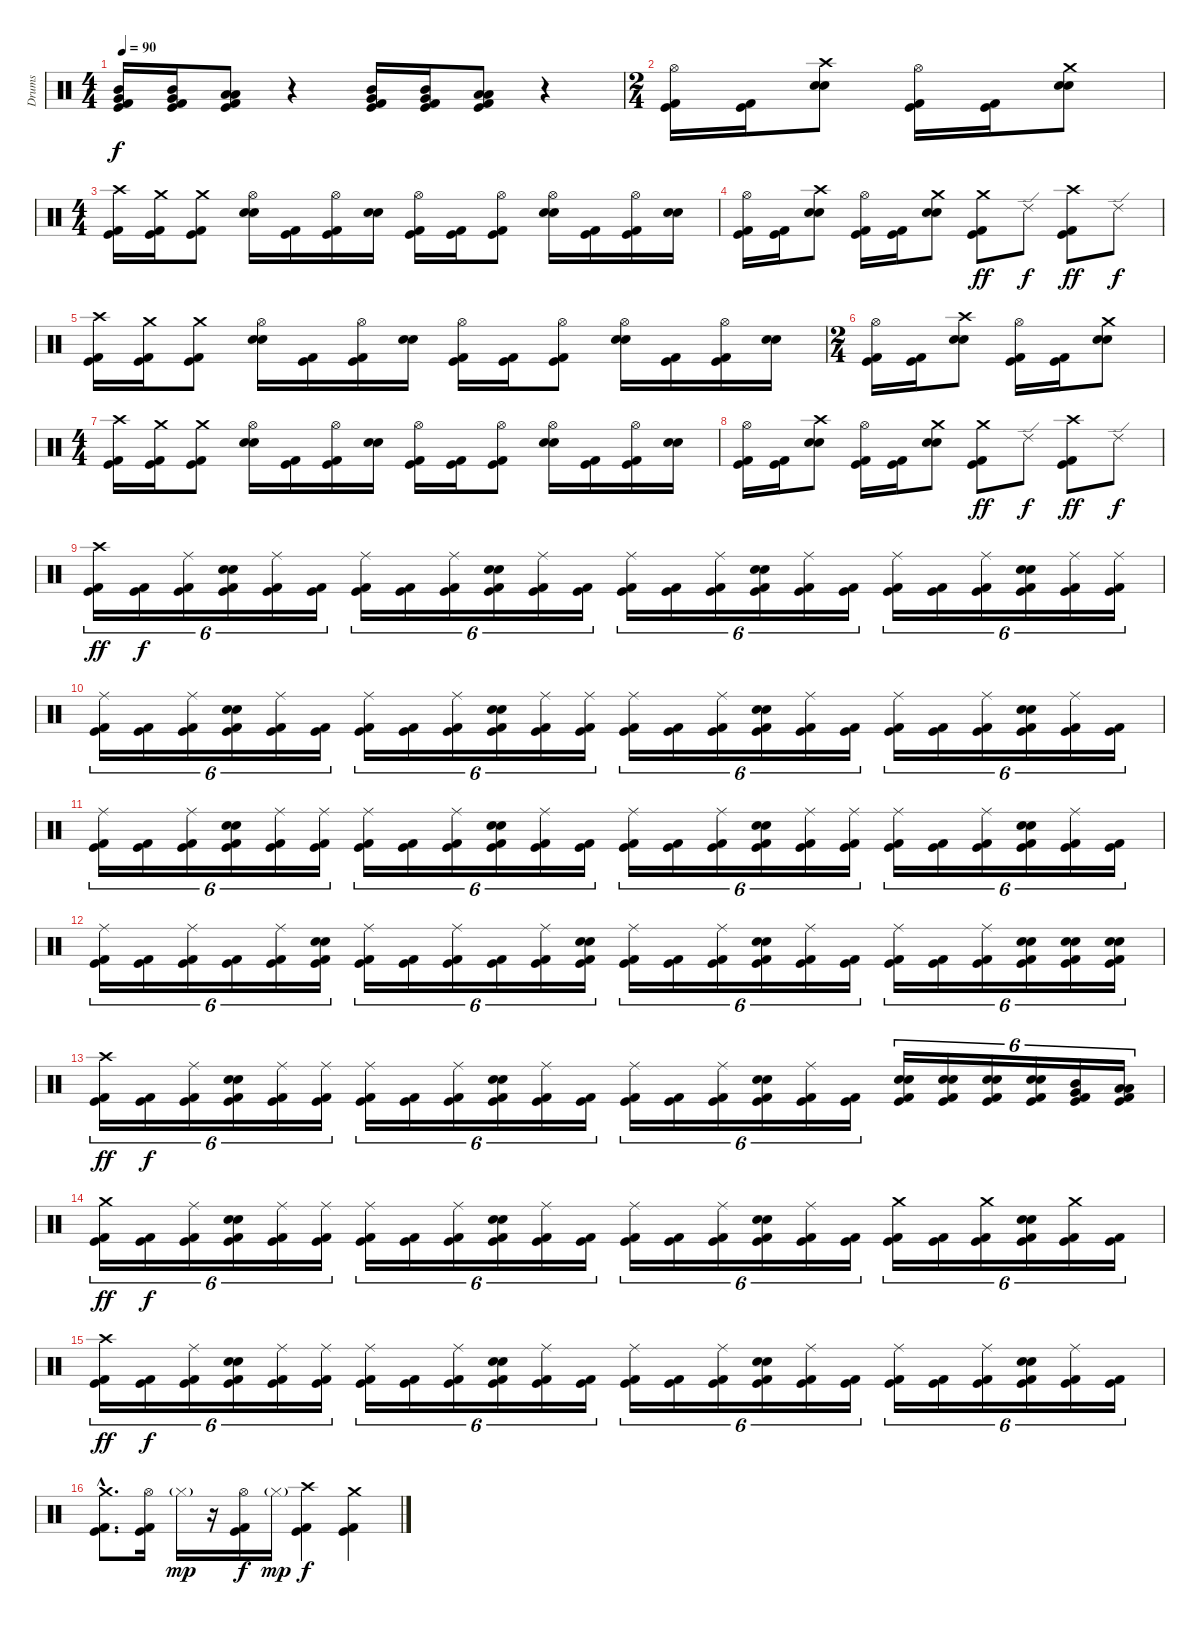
\track ("Drums" "Drums") {instrument percussion}
\staff {score}
\articulation defaults
\ts (4 4)
\tempo 90
\clef neutral
\ks c
("Mid Tom (hit)" "Very Low Tom (hit)" "Kick (hit) 2" "Kick (hit)").16{dy f} ("Mid Tom (hit)" "Very Low Tom (hit)" "Kick (hit) 2" "Kick (hit)").16 ("Low Tom (hit)" "Low Floor Tom (hit)" "Kick (hit) 2" "Kick (hit)").8 r.4 ("Mid Tom (hit)" "Very Low Tom (hit)" "Kick (hit) 2" "Kick (hit)").16 ("Mid Tom (hit)" "Very Low Tom (hit)" "Kick (hit) 2" "Kick (hit)").16 ("Low Tom (hit)" "Low Floor Tom (hit)" "Kick (hit) 2" "Kick (hit)").8 r.4 |
\ts (2 4)
("Hi-Hat (open)" "Kick (hit) 2" "Kick (hit)").16 ("Kick (hit) 2" "Kick (hit)").16 ("Crash high (hit)" "Electric Snare (hit)" "Snare (hit) 2").8 ("Hi-Hat (open)" "Kick (hit) 2" "Kick (hit)").16 ("Kick (hit) 2" "Kick (hit)").16 ("Crash medium (hit)" "Electric Snare (hit)" "Snare (hit) 2").8 |
\ts (4 4)
("Crash high (hit)" "Kick (hit) 2" "Kick (hit)").16 ("Crash medium (hit)" "Kick (hit) 2" "Kick (hit)").16 ("Crash medium (hit)" "Kick (hit) 2" "Kick (hit)").8 ("Hi-Hat (open)" "Electric Snare (hit)" "Snare (hit) 2").16 ("Kick (hit) 2" "Kick (hit)").16 ("Hi-Hat (open)" "Kick (hit) 2" "Kick (hit)").16 ("Electric Snare (hit)" "Snare (hit) 2").16 ("Hi-Hat (open)" "Kick (hit) 2" "Kick (hit)").16 ("Kick (hit) 2" "Kick (hit)").16 ("Hi-Hat (open)" "Kick (hit) 2" "Kick (hit)").8 ("Hi-Hat (open)" "Electric Snare (hit)" "Snare (hit) 2").16 ("Kick (hit) 2" "Kick (hit)").16 ("Hi-Hat (open)" "Kick (hit) 2" "Kick (hit)").16 ("Electric Snare (hit)" "Snare (hit) 2").16 |
("Hi-Hat (open)" "Kick (hit) 2" "Kick (hit)").16 ("Kick (hit) 2" "Kick (hit)").16 ("Crash high (hit)" "Electric Snare (hit)" "Snare (hit) 2").8 ("Hi-Hat (open)" "Kick (hit) 2" "Kick (hit)").16 ("Kick (hit) 2" "Kick (hit)").16 ("Crash medium (hit)" "Electric Snare (hit)" "Snare (hit) 2").8 ("Crash medium (hit)" "Kick (hit) 2" "Kick (hit)").8{dy ff} "Ride (edge) 2".8{dy f} ("Crash high (hit)" "Kick (hit) 2" "Kick (hit)").8{dy ff} "Ride (edge) 2".8{dy f} |
("Crash high (hit)" "Kick (hit) 2" "Kick (hit)").16 ("Crash medium (hit)" "Kick (hit) 2" "Kick (hit)").16 ("Crash medium (hit)" "Kick (hit) 2" "Kick (hit)").8 ("Hi-Hat (open)" "Electric Snare (hit)" "Snare (hit) 2").16 ("Kick (hit) 2" "Kick (hit)").16 ("Hi-Hat (open)" "Kick (hit) 2" "Kick (hit)").16 ("Electric Snare (hit)" "Snare (hit) 2").16 ("Hi-Hat (open)" "Kick (hit) 2" "Kick (hit)").16 ("Kick (hit) 2" "Kick (hit)").16 ("Hi-Hat (open)" "Kick (hit) 2" "Kick (hit)").8 ("Hi-Hat (open)" "Electric Snare (hit)" "Snare (hit) 2").16 ("Kick (hit) 2" "Kick (hit)").16 ("Hi-Hat (open)" "Kick (hit) 2" "Kick (hit)").16 ("Electric Snare (hit)" "Snare (hit) 2").16 |
\ts (2 4)
("Hi-Hat (open)" "Kick (hit) 2" "Kick (hit)").16 ("Kick (hit) 2" "Kick (hit)").16 ("Crash high (hit)" "Electric Snare (hit)" "Snare (hit) 2").8 ("Hi-Hat (open)" "Kick (hit) 2" "Kick (hit)").16 ("Kick (hit) 2" "Kick (hit)").16 ("Crash medium (hit)" "Electric Snare (hit)" "Snare (hit) 2").8 |
\ts (4 4)
("Crash high (hit)" "Kick (hit) 2" "Kick (hit)").16 ("Crash medium (hit)" "Kick (hit) 2" "Kick (hit)").16 ("Crash medium (hit)" "Kick (hit) 2" "Kick (hit)").8 ("Hi-Hat (open)" "Electric Snare (hit)" "Snare (hit) 2").16 ("Kick (hit) 2" "Kick (hit)").16 ("Hi-Hat (open)" "Kick (hit) 2" "Kick (hit)").16 ("Electric Snare (hit)" "Snare (hit) 2").16 ("Hi-Hat (open)" "Kick (hit) 2" "Kick (hit)").16 ("Kick (hit) 2" "Kick (hit)").16 ("Hi-Hat (open)" "Kick (hit) 2" "Kick (hit)").8 ("Hi-Hat (open)" "Electric Snare (hit)" "Snare (hit) 2").16 ("Kick (hit) 2" "Kick (hit)").16 ("Hi-Hat (open)" "Kick (hit) 2" "Kick (hit)").16 ("Electric Snare (hit)" "Snare (hit) 2").16 |
("Hi-Hat (open)" "Kick (hit) 2" "Kick (hit)").16 ("Kick (hit) 2" "Kick (hit)").16 ("Crash high (hit)" "Electric Snare (hit)" "Snare (hit) 2").8 ("Hi-Hat (open)" "Kick (hit) 2" "Kick (hit)").16 ("Kick (hit) 2" "Kick (hit)").16 ("Crash medium (hit)" "Electric Snare (hit)" "Snare (hit) 2").8 ("Crash medium (hit)" "Kick (hit) 2" "Kick (hit)").8{dy ff} "Ride (edge) 2".8{dy f} ("Crash high (hit)" "Kick (hit) 2" "Kick (hit)").8{dy ff} "Ride (edge) 2".8{dy f} |
("Crash high (hit)" "Kick (hit) 2" "Kick (hit)").16{tu (6 4) dy ff} ("Kick (hit) 2" "Kick (hit)").16{tu (6 4) dy f} ("Ride (middle)" "Kick (hit) 2" "Kick (hit)").16{tu (6 4)} ("Electric Snare (hit)" "Snare (hit) 2" "Kick (hit) 2" "Kick (hit)").16{tu (6 4)} ("Ride (middle)" "Kick (hit) 2" "Kick (hit)").16{tu (6 4)} ("Kick (hit) 2" "Kick (hit)").16{tu (6 4)} ("Ride (middle)" "Kick (hit) 2" "Kick (hit)").16{tu (6 4)} ("Kick (hit) 2" "Kick (hit)").16{tu (6 4)} ("Ride (middle)" "Kick (hit) 2" "Kick (hit)").16{tu (6 4)} ("Electric Snare (hit)" "Snare (hit) 2" "Kick (hit) 2" "Kick (hit)").16{tu (6 4)} ("Ride (middle)" "Kick (hit) 2" "Kick (hit)").16{tu (6 4)} ("Kick (hit) 2" "Kick (hit)").16{tu (6 4)} ("Ride (middle)" "Kick (hit) 2" "Kick (hit)").16{tu (6 4)} ("Kick (hit) 2" "Kick (hit)").16{tu (6 4)} ("Ride (middle)" "Kick (hit) 2" "Kick (hit)").16{tu (6 4)} ("Electric Snare (hit)" "Snare (hit) 2" "Kick (hit) 2" "Kick (hit)").16{tu (6 4)} ("Ride (middle)" "Kick (hit) 2" "Kick (hit)").16{tu (6 4)} ("Kick (hit) 2" "Kick (hit)").16{tu (6 4)} ("Ride (middle)" "Kick (hit) 2" "Kick (hit)").16{tu (6 4)} ("Kick (hit) 2" "Kick (hit)").16{tu (6 4)} ("Ride (middle)" "Kick (hit) 2" "Kick (hit)").16{tu (6 4)} ("Electric Snare (hit)" "Snare (hit) 2" "Kick (hit) 2" "Kick (hit)").16{tu (6 4)} ("Ride (middle)" "Kick (hit) 2" "Kick (hit)").16{tu (6 4)} ("Ride (middle)" "Kick (hit) 2" "Kick (hit)").16{tu (6 4)} |
("Ride (middle)" "Kick (hit) 2" "Kick (hit)").16{tu (6 4)} ("Kick (hit) 2" "Kick (hit)").16{tu (6 4)} ("Ride (middle)" "Kick (hit) 2" "Kick (hit)").16{tu (6 4)} ("Electric Snare (hit)" "Snare (hit) 2" "Kick (hit) 2" "Kick (hit)").16{tu (6 4)} ("Ride (middle)" "Kick (hit) 2" "Kick (hit)").16{tu (6 4)} ("Kick (hit) 2" "Kick (hit)").16{tu (6 4)} ("Ride (middle)" "Kick (hit) 2" "Kick (hit)").16{tu (6 4)} ("Kick (hit) 2" "Kick (hit)").16{tu (6 4)} ("Ride (middle)" "Kick (hit) 2" "Kick (hit)").16{tu (6 4)} ("Electric Snare (hit)" "Snare (hit) 2" "Kick (hit) 2" "Kick (hit)").16{tu (6 4)} ("Ride (middle)" "Kick (hit) 2" "Kick (hit)").16{tu (6 4)} ("Ride (middle)" "Kick (hit) 2" "Kick (hit)").16{tu (6 4)} ("Ride (middle)" "Kick (hit) 2" "Kick (hit)").16{tu (6 4)} ("Kick (hit) 2" "Kick (hit)").16{tu (6 4)} ("Ride (middle)" "Kick (hit) 2" "Kick (hit)").16{tu (6 4)} ("Electric Snare (hit)" "Snare (hit) 2" "Kick (hit) 2" "Kick (hit)").16{tu (6 4)} ("Ride (middle)" "Kick (hit) 2" "Kick (hit)").16{tu (6 4)} ("Kick (hit) 2" "Kick (hit)").16{tu (6 4)} ("Ride (middle)" "Kick (hit) 2" "Kick (hit)").16{tu (6 4)} ("Kick (hit) 2" "Kick (hit)").16{tu (6 4)} ("Ride (middle)" "Kick (hit) 2" "Kick (hit)").16{tu (6 4)} ("Electric Snare (hit)" "Snare (hit) 2" "Kick (hit) 2" "Kick (hit)").16{tu (6 4)} ("Ride (middle)" "Kick (hit) 2" "Kick (hit)").16{tu (6 4)} ("Kick (hit) 2" "Kick (hit)").16{tu (6 4)} |
("Ride (middle)" "Kick (hit) 2" "Kick (hit)").16{tu (6 4)} ("Kick (hit) 2" "Kick (hit)").16{tu (6 4)} ("Ride (middle)" "Kick (hit) 2" "Kick (hit)").16{tu (6 4)} ("Electric Snare (hit)" "Snare (hit) 2" "Kick (hit) 2" "Kick (hit)").16{tu (6 4)} ("Ride (middle)" "Kick (hit) 2" "Kick (hit)").16{tu (6 4)} ("Ride (middle)" "Kick (hit) 2" "Kick (hit)").16{tu (6 4)} ("Ride (middle)" "Kick (hit) 2" "Kick (hit)").16{tu (6 4)} ("Kick (hit) 2" "Kick (hit)").16{tu (6 4)} ("Ride (middle)" "Kick (hit) 2" "Kick (hit)").16{tu (6 4)} ("Electric Snare (hit)" "Snare (hit) 2" "Kick (hit) 2" "Kick (hit)").16{tu (6 4)} ("Ride (middle)" "Kick (hit) 2" "Kick (hit)").16{tu (6 4)} ("Kick (hit) 2" "Kick (hit)").16{tu (6 4)} ("Ride (middle)" "Kick (hit) 2" "Kick (hit)").16{tu (6 4)} ("Kick (hit) 2" "Kick (hit)").16{tu (6 4)} ("Ride (middle)" "Kick (hit) 2" "Kick (hit)").16{tu (6 4)} ("Electric Snare (hit)" "Snare (hit) 2" "Kick (hit) 2" "Kick (hit)").16{tu (6 4)} ("Ride (middle)" "Kick (hit) 2" "Kick (hit)").16{tu (6 4)} ("Ride (middle)" "Kick (hit) 2" "Kick (hit)").16{tu (6 4)} ("Ride (middle)" "Kick (hit) 2" "Kick (hit)").16{tu (6 4)} ("Kick (hit) 2" "Kick (hit)").16{tu (6 4)} ("Ride (middle)" "Kick (hit) 2" "Kick (hit)").16{tu (6 4)} ("Electric Snare (hit)" "Snare (hit) 2" "Kick (hit) 2" "Kick (hit)").16{tu (6 4)} ("Ride (middle)" "Kick (hit) 2" "Kick (hit)").16{tu (6 4)} ("Kick (hit) 2" "Kick (hit)").16{tu (6 4)} |
("Ride (middle)" "Kick (hit) 2" "Kick (hit)").16{tu (6 4)} ("Kick (hit) 2" "Kick (hit)").16{tu (6 4)} ("Ride (middle)" "Kick (hit) 2" "Kick (hit)").16{tu (6 4)} ("Kick (hit) 2" "Kick (hit)").16{tu (6 4)} ("Ride (middle)" "Kick (hit) 2" "Kick (hit)").16{tu (6 4)} ("Electric Snare (hit)" "Snare (hit) 2" "Kick (hit) 2" "Kick (hit)").16{tu (6 4)} ("Ride (middle)" "Kick (hit) 2" "Kick (hit)").16{tu (6 4)} ("Kick (hit) 2" "Kick (hit)").16{tu (6 4)} ("Ride (middle)" "Kick (hit) 2" "Kick (hit)").16{tu (6 4)} ("Kick (hit) 2" "Kick (hit)").16{tu (6 4)} ("Ride (middle)" "Kick (hit) 2" "Kick (hit)").16{tu (6 4)} ("Electric Snare (hit)" "Snare (hit) 2" "Kick (hit) 2" "Kick (hit)").16{tu (6 4)} ("Ride (middle)" "Kick (hit) 2" "Kick (hit)").16{tu (6 4)} ("Kick (hit) 2" "Kick (hit)").16{tu (6 4)} ("Ride (middle)" "Kick (hit) 2" "Kick (hit)").16{tu (6 4)} ("Electric Snare (hit)" "Snare (hit) 2" "Kick (hit) 2" "Kick (hit)").16{tu (6 4)} ("Ride (middle)" "Kick (hit) 2" "Kick (hit)").16{tu (6 4)} ("Kick (hit) 2" "Kick (hit)").16{tu (6 4)} ("Ride (middle)" "Kick (hit) 2" "Kick (hit)").16{tu (6 4)} ("Kick (hit) 2" "Kick (hit)").16{tu (6 4)} ("Ride (middle)" "Kick (hit) 2" "Kick (hit)").16{tu (6 4)} ("Electric Snare (hit)" "Snare (hit) 2" "Kick (hit) 2" "Kick (hit)").16{tu (6 4)} ("Electric Snare (hit)" "Snare (hit) 2" "Kick (hit) 2" "Kick (hit)").16{tu (6 4)} ("Electric Snare (hit)" "Snare (hit) 2" "Kick (hit) 2" "Kick (hit)").16{tu (6 4)} |
("Crash high (hit)" "Kick (hit) 2" "Kick (hit)").16{tu (6 4) dy ff} ("Kick (hit) 2" "Kick (hit)").16{tu (6 4) dy f} ("Ride (middle)" "Kick (hit) 2" "Kick (hit)").16{tu (6 4)} ("Electric Snare (hit)" "Snare (hit) 2" "Kick (hit) 2" "Kick (hit)").16{tu (6 4)} ("Ride (middle)" "Kick (hit) 2" "Kick (hit)").16{tu (6 4)} ("Ride (middle)" "Kick (hit) 2" "Kick (hit)").16{tu (6 4)} ("Ride (middle)" "Kick (hit) 2" "Kick (hit)").16{tu (6 4)} ("Kick (hit) 2" "Kick (hit)").16{tu (6 4)} ("Ride (middle)" "Kick (hit) 2" "Kick (hit)").16{tu (6 4)} ("Electric Snare (hit)" "Snare (hit) 2" "Kick (hit) 2" "Kick (hit)").16{tu (6 4)} ("Ride (middle)" "Kick (hit) 2" "Kick (hit)").16{tu (6 4)} ("Kick (hit) 2" "Kick (hit)").16{tu (6 4)} ("Ride (middle)" "Kick (hit) 2" "Kick (hit)").16{tu (6 4)} ("Kick (hit) 2" "Kick (hit)").16{tu (6 4)} ("Ride (middle)" "Kick (hit) 2" "Kick (hit)").16{tu (6 4)} ("Electric Snare (hit)" "Snare (hit) 2" "Kick (hit) 2" "Kick (hit)").16{tu (6 4)} ("Ride (middle)" "Kick (hit) 2" "Kick (hit)").16{tu (6 4)} ("Kick (hit) 2" "Kick (hit)").16{tu (6 4)} ("Electric Snare (hit)" "Snare (hit) 2" "Kick (hit) 2" "Kick (hit)").16{tu (6 4)} ("Electric Snare (hit)" "Snare (hit) 2" "Kick (hit) 2" "Kick (hit)").16{tu (6 4)} ("Electric Snare (hit)" "Snare (hit) 2" "Kick (hit) 2" "Kick (hit)").16{tu (6 4)} ("Electric Snare (hit)" "Snare (hit) 2" "Kick (hit) 2" "Kick (hit)").16{tu (6 4)} ("Mid Tom (hit)" "Very Low Tom (hit)" "Kick (hit) 2" "Kick (hit)").16{tu (6 4)} ("Low Tom (hit)" "Low Floor Tom (hit)" "Kick (hit) 2" "Kick (hit)").16{tu (6 4)} |
("Crash medium (hit)" "Kick (hit) 2" "Kick (hit)").16{tu (6 4) dy ff} ("Kick (hit) 2" "Kick (hit)").16{tu (6 4) dy f} ("Ride (middle)" "Kick (hit) 2" "Kick (hit)").16{tu (6 4)} ("Electric Snare (hit)" "Snare (hit) 2" "Kick (hit) 2" "Kick (hit)").16{tu (6 4)} ("Ride (middle)" "Kick (hit) 2" "Kick (hit)").16{tu (6 4)} ("Ride (middle)" "Kick (hit) 2" "Kick (hit)").16{tu (6 4)} ("Ride (middle)" "Kick (hit) 2" "Kick (hit)").16{tu (6 4)} ("Kick (hit) 2" "Kick (hit)").16{tu (6 4)} ("Ride (middle)" "Kick (hit) 2" "Kick (hit)").16{tu (6 4)} ("Electric Snare (hit)" "Snare (hit) 2" "Kick (hit) 2" "Kick (hit)").16{tu (6 4)} ("Ride (middle)" "Kick (hit) 2" "Kick (hit)").16{tu (6 4)} ("Kick (hit) 2" "Kick (hit)").16{tu (6 4)} ("Ride (middle)" "Kick (hit) 2" "Kick (hit)").16{tu (6 4)} ("Kick (hit) 2" "Kick (hit)").16{tu (6 4)} ("Ride (middle)" "Kick (hit) 2" "Kick (hit)").16{tu (6 4)} ("Electric Snare (hit)" "Snare (hit) 2" "Kick (hit) 2" "Kick (hit)").16{tu (6 4)} ("Ride (middle)" "Kick (hit) 2" "Kick (hit)").16{tu (6 4)} ("Kick (hit) 2" "Kick (hit)").16{tu (6 4)} ("Crash medium (hit)" "Kick (hit) 2" "Kick (hit)").16{tu (6 4)} ("Kick (hit) 2" "Kick (hit)").16{tu (6 4)} ("Crash medium (hit)" "Kick (hit) 2" "Kick (hit)").16{tu (6 4)} ("Electric Snare (hit)" "Snare (hit) 2" "Kick (hit) 2" "Kick (hit)").16{tu (6 4)} ("Crash medium (hit)" "Kick (hit) 2" "Kick (hit)").16{tu (6 4)} ("Kick (hit) 2" "Kick (hit)").16{tu (6 4)} |
("Crash high (hit)" "Kick (hit) 2" "Kick (hit)").16{tu (6 4) dy ff} ("Kick (hit) 2" "Kick (hit)").16{tu (6 4) dy f} ("Ride (middle)" "Kick (hit) 2" "Kick (hit)").16{tu (6 4)} ("Electric Snare (hit)" "Snare (hit) 2" "Kick (hit) 2" "Kick (hit)").16{tu (6 4)} ("Ride (middle)" "Kick (hit) 2" "Kick (hit)").16{tu (6 4)} ("Ride (middle)" "Kick (hit) 2" "Kick (hit)").16{tu (6 4)} ("Ride (middle)" "Kick (hit) 2" "Kick (hit)").16{tu (6 4)} ("Kick (hit) 2" "Kick (hit)").16{tu (6 4)} ("Ride (middle)" "Kick (hit) 2" "Kick (hit)").16{tu (6 4)} ("Electric Snare (hit)" "Snare (hit) 2" "Kick (hit) 2" "Kick (hit)").16{tu (6 4)} ("Ride (middle)" "Kick (hit) 2" "Kick (hit)").16{tu (6 4)} ("Kick (hit) 2" "Kick (hit)").16{tu (6 4)} ("Ride (middle)" "Kick (hit) 2" "Kick (hit)").16{tu (6 4)} ("Kick (hit) 2" "Kick (hit)").16{tu (6 4)} ("Ride (middle)" "Kick (hit) 2" "Kick (hit)").16{tu (6 4)} ("Electric Snare (hit)" "Snare (hit) 2" "Kick (hit) 2" "Kick (hit)").16{tu (6 4)} ("Ride (middle)" "Kick (hit) 2" "Kick (hit)").16{tu (6 4)} ("Kick (hit) 2" "Kick (hit)").16{tu (6 4)} ("Ride (middle)" "Kick (hit) 2" "Kick (hit)").16{tu (6 4)} ("Kick (hit) 2" "Kick (hit)").16{tu (6 4)} ("Ride (middle)" "Kick (hit) 2" "Kick (hit)").16{tu (6 4)} ("Electric Snare (hit)" "Snare (hit) 2" "Kick (hit) 2" "Kick (hit)").16{tu (6 4)} ("Ride (middle)" "Kick (hit) 2" "Kick (hit)").16{tu (6 4)} ("Kick (hit) 2" "Kick (hit)").16{tu (6 4)} |
("Crash medium (hit)"{hac} "Kick (hit) 2"{hac} "Kick (hit)"{hac}).8{d} ("Hi-Hat (open)" "Kick (hit) 2" "Kick (hit)").16 "Hi-Hat (closed)"{g}.16{dy mp} r.16 ("Hi-Hat (open)" "Kick (hit) 2" "Kick (hit)").16{dy f} "Hi-Hat (closed)"{g}.16{dy mp} ("Crash high (hit)" "Kick (hit) 2" "Kick (hit)").4{dy f} ("Crash medium (hit)" "Kick (hit) 2" "Kick (hit)").4
